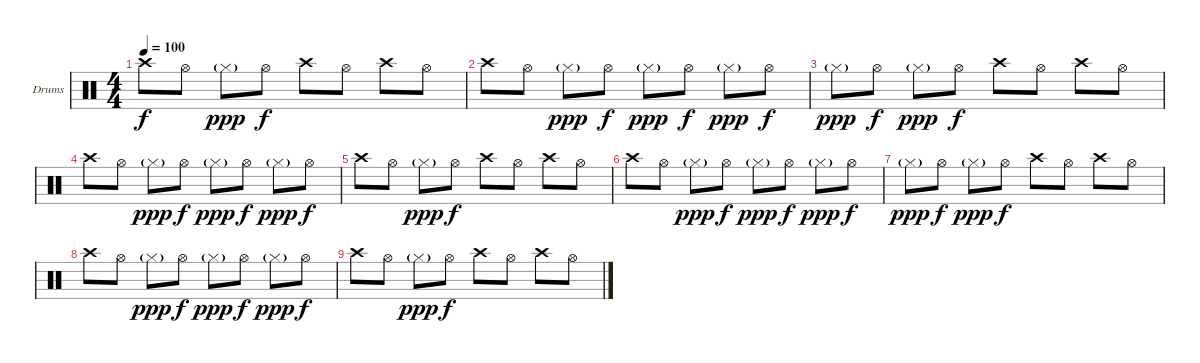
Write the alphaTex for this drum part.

\bracketExtendMode groupsimilarinstruments
\firstSystemTrackNameOrientation horizontal
\otherSystemsTrackNameOrientation horizontal
\track ("Cymbals right" "Drums") {instrument percussion}
\staff {score}
\articulation defaults
\ts (4 4)
\tempo 100
\clef neutral
\ks c "Crash high (hit)".8{dy f} "Hi-Hat (open)".8 "Hi-Hat (closed)"{g}.8{dy ppp} "Hi-Hat (open)".8{dy f} "Crash high (hit)".8 "Hi-Hat (open)".8 "Crash high (hit)".8 "Hi-Hat (open)".8
|
"Crash high (hit)".8 "Hi-Hat (open)".8 "Hi-Hat (closed)"{g}.8{dy ppp} "Hi-Hat (open)".8{dy f} "Hi-Hat (closed)"{g}.8{dy ppp} "Hi-Hat (open)".8{dy f} "Hi-Hat (closed)"{g}.8{dy ppp} "Hi-Hat (open)".8{dy f} |
"Hi-Hat (closed)"{g}.8{dy ppp} "Hi-Hat (open)".8{dy f} "Hi-Hat (closed)"{g}.8{dy ppp} "Hi-Hat (open)".8{dy f} "Crash high (hit)".8 "Hi-Hat (open)".8 "Crash high (hit)".8 "Hi-Hat (open)".8 |
"Crash high (hit)".8 "Hi-Hat (open)".8 "Hi-Hat (closed)"{g}.8{dy ppp} "Hi-Hat (open)".8{dy f} "Hi-Hat (closed)"{g}.8{dy ppp} "Hi-Hat (open)".8{dy f} "Hi-Hat (closed)"{g}.8{dy ppp} "Hi-Hat (open)".8{dy f} |
"Crash high (hit)".8 "Hi-Hat (open)".8 "Hi-Hat (closed)"{g}.8{dy ppp} "Hi-Hat (open)".8{dy f} "Crash high (hit)".8 "Hi-Hat (open)".8 "Crash high (hit)".8 "Hi-Hat (open)".8 |
"Crash high (hit)".8 "Hi-Hat (open)".8 "Hi-Hat (closed)"{g}.8{dy ppp} "Hi-Hat (open)".8{dy f} "Hi-Hat (closed)"{g}.8{dy ppp} "Hi-Hat (open)".8{dy f} "Hi-Hat (closed)"{g}.8{dy ppp} "Hi-Hat (open)".8{dy f} |
"Hi-Hat (closed)"{g}.8{dy ppp} "Hi-Hat (open)".8{dy f} "Hi-Hat (closed)"{g}.8{dy ppp} "Hi-Hat (open)".8{dy f} "Crash high (hit)".8 "Hi-Hat (open)".8 "Crash high (hit)".8 "Hi-Hat (open)".8 |
"Crash high (hit)".8 "Hi-Hat (open)".8 "Hi-Hat (closed)"{g}.8{dy ppp} "Hi-Hat (open)".8{dy f} "Hi-Hat (closed)"{g}.8{dy ppp} "Hi-Hat (open)".8{dy f} "Hi-Hat (closed)"{g}.8{dy ppp} "Hi-Hat (open)".8{dy f} |
"Crash high (hit)".8 "Hi-Hat (open)".8 "Hi-Hat (closed)"{g}.8{dy ppp} "Hi-Hat (open)".8{dy f} "Crash high (hit)".8 "Hi-Hat (open)".8 "Crash high (hit)".8 "Hi-Hat (open)".8
